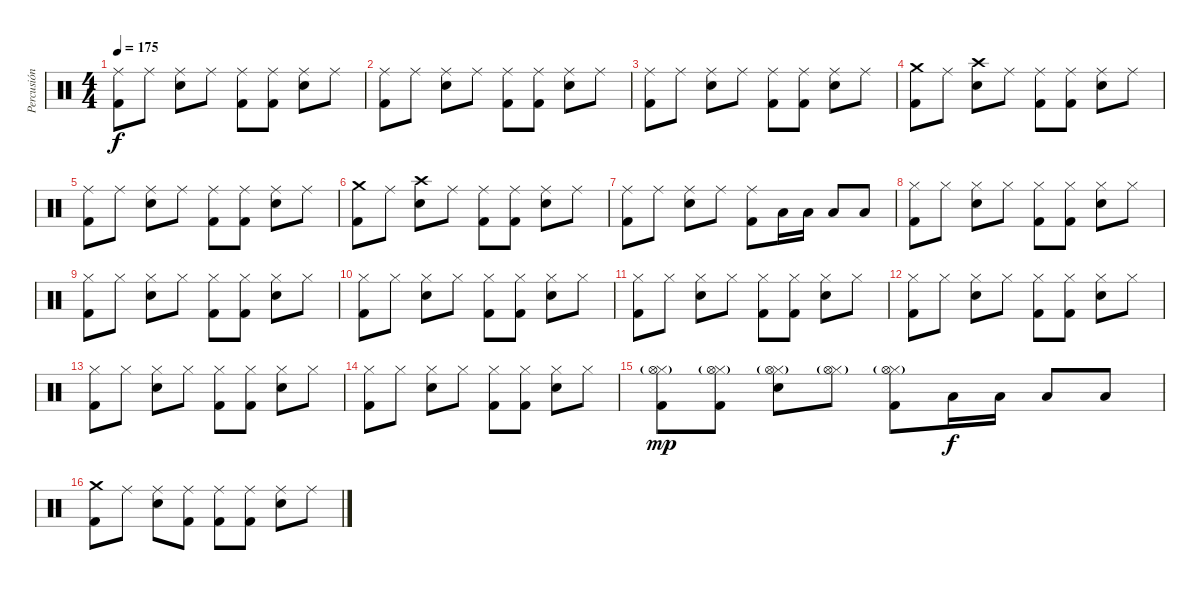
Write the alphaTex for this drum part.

\track ("Percusión" "Percusión") {instrument percussion}
\staff {score}
\articulation defaults
\ts (4 4)
\tempo 175
\clef neutral
\ks c
("Ride (middle)" "Kick (hit) 2").8{dy f} "Ride (middle)".8 ("Ride (middle)" "Electric Snare (hit)").8 "Ride (middle)".8 ("Kick (hit) 2" "Ride (middle)").8 ("Kick (hit) 2" "Ride (middle)").8 ("Electric Snare (hit)" "Ride (middle)").8 "Ride (middle)".8 |
("Ride (middle)" "Kick (hit) 2").8 "Ride (middle)".8 ("Ride (middle)" "Electric Snare (hit)").8 "Ride (middle)".8 ("Kick (hit) 2" "Ride (middle)").8 ("Kick (hit) 2" "Ride (middle)").8 ("Electric Snare (hit)" "Ride (middle)").8 "Ride (middle)".8 |
("Ride (middle)" "Kick (hit) 2").8 "Ride (middle)".8 ("Ride (middle)" "Electric Snare (hit)").8 "Ride (middle)".8 ("Kick (hit) 2" "Ride (middle)").8 ("Kick (hit) 2" "Ride (middle)").8 ("Electric Snare (hit)" "Ride (middle)").8 "Ride (middle)".8 |
("Kick (hit) 2" "Crash medium (hit)").8 "Ride (middle)".8 ("Crash high (hit)" "Electric Snare (hit)").8 "Ride (middle)".8 ("Kick (hit) 2" "Ride (middle)").8 ("Kick (hit) 2" "Ride (middle)").8 ("Electric Snare (hit)" "Ride (middle)").8 "Ride (middle)".8 |
("Ride (middle)" "Kick (hit) 2").8 "Ride (middle)".8 ("Ride (middle)" "Electric Snare (hit)").8 "Ride (middle)".8 ("Kick (hit) 2" "Ride (middle)").8 ("Kick (hit) 2" "Ride (middle)").8 ("Electric Snare (hit)" "Ride (middle)").8 "Ride (middle)".8 |
("Kick (hit) 2" "Crash medium (hit)").8 "Ride (middle)".8 ("Crash high (hit)" "Electric Snare (hit)").8 "Ride (middle)".8 ("Kick (hit) 2" "Ride (middle)").8 ("Kick (hit) 2" "Ride (middle)").8 ("Electric Snare (hit)" "Ride (middle)").8 "Ride (middle)".8 |
("Ride (middle)" "Kick (hit) 2").8 "Ride (middle)".8 ("Ride (middle)" "Electric Snare (hit)").8 "Ride (middle)".8 ("Kick (hit) 2" "Ride (middle)").8 "Low Tom (hit)".16 "Low Floor Tom (hit)".16 "Low Floor Tom (hit)".8 "Low Floor Tom (hit)".8 |
("Hi-Hat (closed)" "Kick (hit) 2").8 "Hi-Hat (closed)".8 ("Hi-Hat (closed)" "Electric Snare (hit)").8 "Hi-Hat (closed)".8 ("Kick (hit) 2" "Hi-Hat (closed)").8 ("Kick (hit) 2" "Hi-Hat (closed)").8 ("Electric Snare (hit)" "Hi-Hat (closed)").8 "Hi-Hat (closed)".8 |
("Hi-Hat (closed)" "Kick (hit) 2").8 "Hi-Hat (closed)".8 ("Hi-Hat (closed)" "Electric Snare (hit)").8 "Hi-Hat (closed)".8 ("Kick (hit) 2" "Hi-Hat (closed)").8 ("Kick (hit) 2" "Hi-Hat (closed)").8 ("Electric Snare (hit)" "Hi-Hat (closed)").8 "Hi-Hat (closed)".8 |
("Hi-Hat (closed)" "Kick (hit) 2").8 "Hi-Hat (closed)".8 ("Hi-Hat (closed)" "Electric Snare (hit)").8 "Hi-Hat (closed)".8 ("Kick (hit) 2" "Hi-Hat (closed)").8 ("Kick (hit) 2" "Hi-Hat (closed)").8 ("Electric Snare (hit)" "Hi-Hat (closed)").8 "Hi-Hat (closed)".8 |
("Hi-Hat (closed)" "Kick (hit) 2").8 "Hi-Hat (closed)".8 ("Hi-Hat (closed)" "Electric Snare (hit)").8 "Hi-Hat (closed)".8 ("Kick (hit) 2" "Hi-Hat (closed)").8 ("Kick (hit) 2" "Hi-Hat (closed)").8 ("Electric Snare (hit)" "Hi-Hat (closed)").8 "Hi-Hat (closed)".8 |
("Hi-Hat (closed)" "Kick (hit) 2").8 "Hi-Hat (closed)".8 ("Hi-Hat (closed)" "Electric Snare (hit)").8 "Hi-Hat (closed)".8 ("Kick (hit) 2" "Hi-Hat (closed)").8 ("Kick (hit) 2" "Hi-Hat (closed)").8 ("Electric Snare (hit)" "Hi-Hat (closed)").8 "Hi-Hat (closed)".8 |
("Hi-Hat (closed)" "Kick (hit) 2").8 "Hi-Hat (closed)".8 ("Hi-Hat (closed)" "Electric Snare (hit)").8 "Hi-Hat (closed)".8 ("Kick (hit) 2" "Hi-Hat (closed)").8 ("Kick (hit) 2" "Hi-Hat (closed)").8 ("Electric Snare (hit)" "Hi-Hat (closed)").8 "Hi-Hat (closed)".8 |
("Hi-Hat (closed)" "Kick (hit) 2").8 "Hi-Hat (closed)".8 ("Hi-Hat (closed)" "Electric Snare (hit)").8 "Hi-Hat (closed)".8 ("Kick (hit) 2" "Hi-Hat (closed)").8 ("Kick (hit) 2" "Hi-Hat (closed)").8 ("Electric Snare (hit)" "Hi-Hat (closed)").8 "Hi-Hat (closed)".8 |
("Hi-Hat (closed)" "Kick (hit) 2" "Hi-Hat (open)"{g}).8{dy mp} ("Hi-Hat (closed)" "Kick (hit) 2" "Hi-Hat (open)"{g}).8 ("Hi-Hat (closed)" "Electric Snare (hit)" "Hi-Hat (open)"{g}).8 ("Hi-Hat (closed)" "Hi-Hat (open)"{g}).8 ("Kick (hit) 2" "Hi-Hat (closed)" "Hi-Hat (open)"{g}).8 "Low Tom (hit)".16{dy f} "Low Floor Tom (hit)".16 "Low Floor Tom (hit)".8 "Low Floor Tom (hit)".8 |
("Crash medium (hit)" "Kick (hit) 2").8 "Ride (middle)".8 ("Ride (middle)" "Electric Snare (hit)").8 ("Ride (middle)" "Kick (hit) 2").8 ("Kick (hit) 2" "Ride (middle)").8 ("Kick (hit) 2" "Ride (middle)").8 ("Electric Snare (hit)" "Ride (middle)").8 "Ride (middle)".8
